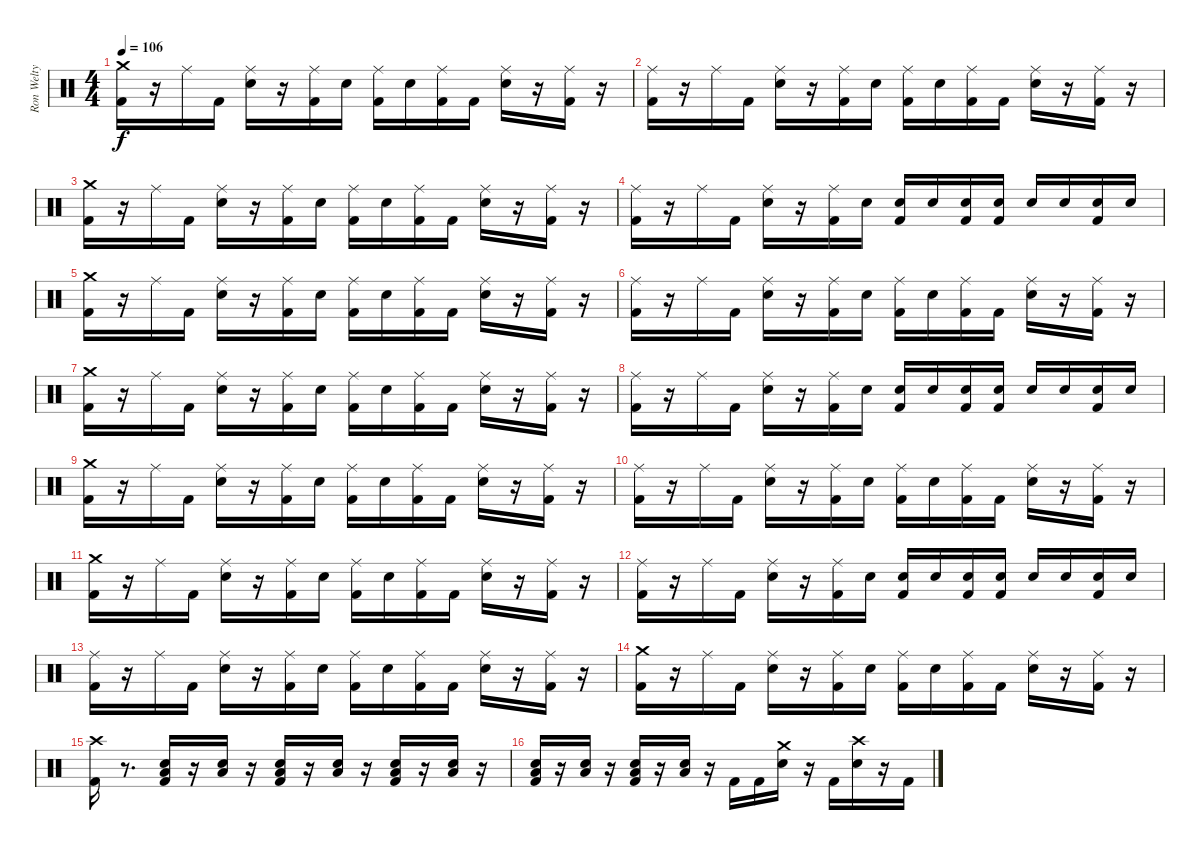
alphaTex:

\track ("Ron Welty - Drummer" "Ron Welty ") {instrument percussion}
\staff {score}
\articulation defaults
\ts (4 4)
\tempo 106
\clef neutral
\ks c
("Kick (hit) 2" "Crash medium (hit)").16{dy f} r.16 "Ride (middle)".16 "Kick (hit) 2".16 ("Electric Snare (hit)" "Ride (middle)").16 r.16 ("Kick (hit) 2" "Ride (middle)").16 "Electric Snare (hit)".16 ("Kick (hit) 2" "Ride (middle)").16 "Electric Snare (hit)".16 ("Kick (hit) 2" "Ride (middle)").16 "Kick (hit) 2".16 ("Electric Snare (hit)" "Ride (middle)").16 r.16 ("Kick (hit) 2" "Ride (middle)").16 r.16 |
("Kick (hit) 2" "Ride (middle)").16 r.16 "Ride (middle)".16 "Kick (hit) 2".16 ("Electric Snare (hit)" "Ride (middle)").16 r.16 ("Kick (hit) 2" "Ride (middle)").16 "Electric Snare (hit)".16 ("Kick (hit) 2" "Ride (middle)").16 "Electric Snare (hit)".16 ("Kick (hit) 2" "Ride (middle)").16 "Kick (hit) 2".16 ("Electric Snare (hit)" "Ride (middle)").16 r.16 ("Kick (hit) 2" "Ride (middle)").16 r.16 |
("Kick (hit) 2" "Crash medium (hit)").16 r.16 "Ride (middle)".16 "Kick (hit) 2".16 ("Electric Snare (hit)" "Ride (middle)").16 r.16 ("Kick (hit) 2" "Ride (middle)").16 "Electric Snare (hit)".16 ("Kick (hit) 2" "Ride (middle)").16 "Electric Snare (hit)".16 ("Kick (hit) 2" "Ride (middle)").16 "Kick (hit) 2".16 ("Electric Snare (hit)" "Ride (middle)").16 r.16 ("Kick (hit) 2" "Ride (middle)").16 r.16 |
("Kick (hit) 2" "Ride (middle)").16 r.16 "Ride (middle)".16 "Kick (hit) 2".16 ("Electric Snare (hit)" "Ride (middle)").16 r.16 ("Kick (hit) 2" "Ride (middle)").16 "Electric Snare (hit)".16 ("Kick (hit) 2" "Electric Snare (hit)").16 "Electric Snare (hit)".16 ("Kick (hit) 2" "Electric Snare (hit)").16 ("Kick (hit) 2" "Electric Snare (hit)").16 "Electric Snare (hit)".16 "Electric Snare (hit)".16 ("Kick (hit) 2" "Electric Snare (hit)").16 "Electric Snare (hit)".16 |
("Crash medium (hit)" "Kick (hit) 2").16 r.16 "Ride (middle)".16 "Kick (hit) 2".16 ("Electric Snare (hit)" "Ride (middle)").16 r.16 ("Kick (hit) 2" "Ride (middle)").16 "Electric Snare (hit)".16 ("Kick (hit) 2" "Ride (middle)").16 "Electric Snare (hit)".16 ("Kick (hit) 2" "Ride (middle)").16 "Kick (hit) 2".16 ("Electric Snare (hit)" "Ride (middle)").16 r.16 ("Kick (hit) 2" "Ride (middle)").16 r.16 |
("Kick (hit) 2" "Ride (middle)").16 r.16 "Ride (middle)".16 "Kick (hit) 2".16 ("Electric Snare (hit)" "Ride (middle)").16 r.16 ("Kick (hit) 2" "Ride (middle)").16 "Electric Snare (hit)".16 ("Kick (hit) 2" "Ride (middle)").16 "Electric Snare (hit)".16 ("Kick (hit) 2" "Ride (middle)").16 "Kick (hit) 2".16 ("Electric Snare (hit)" "Ride (middle)").16 r.16 ("Kick (hit) 2" "Ride (middle)").16 r.16 |
("Kick (hit) 2" "Crash medium (hit)").16 r.16 "Ride (middle)".16 "Kick (hit) 2".16 ("Electric Snare (hit)" "Ride (middle)").16 r.16 ("Kick (hit) 2" "Ride (middle)").16 "Electric Snare (hit)".16 ("Kick (hit) 2" "Ride (middle)").16 "Electric Snare (hit)".16 ("Kick (hit) 2" "Ride (middle)").16 "Kick (hit) 2".16 ("Electric Snare (hit)" "Ride (middle)").16 r.16 ("Kick (hit) 2" "Ride (middle)").16 r.16 |
("Kick (hit) 2" "Ride (middle)").16 r.16 "Ride (middle)".16 "Kick (hit) 2".16 ("Electric Snare (hit)" "Ride (middle)").16 r.16 ("Kick (hit) 2" "Ride (middle)").16 "Electric Snare (hit)".16 ("Kick (hit) 2" "Electric Snare (hit)").16 "Electric Snare (hit)".16 ("Kick (hit) 2" "Electric Snare (hit)").16 ("Kick (hit) 2" "Electric Snare (hit)").16 "Electric Snare (hit)".16 "Electric Snare (hit)".16 ("Kick (hit) 2" "Electric Snare (hit)").16 "Electric Snare (hit)".16 |
("Crash medium (hit)" "Kick (hit) 2").16 r.16 "Ride (middle)".16 "Kick (hit) 2".16 ("Electric Snare (hit)" "Ride (middle)").16 r.16 ("Kick (hit) 2" "Ride (middle)").16 "Electric Snare (hit)".16 ("Kick (hit) 2" "Ride (middle)").16 "Electric Snare (hit)".16 ("Kick (hit) 2" "Ride (middle)").16 "Kick (hit) 2".16 ("Electric Snare (hit)" "Ride (middle)").16 r.16 ("Kick (hit) 2" "Ride (middle)").16 r.16 |
("Kick (hit) 2" "Ride (middle)").16 r.16 "Ride (middle)".16 "Kick (hit) 2".16 ("Electric Snare (hit)" "Ride (middle)").16 r.16 ("Kick (hit) 2" "Ride (middle)").16 "Electric Snare (hit)".16 ("Kick (hit) 2" "Ride (middle)").16 "Electric Snare (hit)".16 ("Kick (hit) 2" "Ride (middle)").16 "Kick (hit) 2".16 ("Electric Snare (hit)" "Ride (middle)").16 r.16 ("Kick (hit) 2" "Ride (middle)").16 r.16 |
("Kick (hit) 2" "Crash medium (hit)").16 r.16 "Ride (middle)".16 "Kick (hit) 2".16 ("Electric Snare (hit)" "Ride (middle)").16 r.16 ("Kick (hit) 2" "Ride (middle)").16 "Electric Snare (hit)".16 ("Kick (hit) 2" "Ride (middle)").16 "Electric Snare (hit)".16 ("Kick (hit) 2" "Ride (middle)").16 "Kick (hit) 2".16 ("Electric Snare (hit)" "Ride (middle)").16 r.16 ("Kick (hit) 2" "Ride (middle)").16 r.16 |
("Kick (hit) 2" "Ride (middle)").16 r.16 "Ride (middle)".16 "Kick (hit) 2".16 ("Electric Snare (hit)" "Ride (middle)").16 r.16 ("Kick (hit) 2" "Ride (middle)").16 "Electric Snare (hit)".16 ("Kick (hit) 2" "Electric Snare (hit)").16 "Electric Snare (hit)".16 ("Kick (hit) 2" "Electric Snare (hit)").16 ("Kick (hit) 2" "Electric Snare (hit)").16 "Electric Snare (hit)".16 "Electric Snare (hit)".16 ("Kick (hit) 2" "Electric Snare (hit)").16 "Electric Snare (hit)".16 |
("Kick (hit) 2" "Ride (middle)").16 r.16 "Ride (middle)".16 "Kick (hit) 2".16 ("Electric Snare (hit)" "Ride (middle)").16 r.16 ("Kick (hit) 2" "Ride (middle)").16 "Electric Snare (hit)".16 ("Kick (hit) 2" "Ride (middle)").16 "Electric Snare (hit)".16 ("Kick (hit) 2" "Ride (middle)").16 "Kick (hit) 2".16 ("Electric Snare (hit)" "Ride (middle)").16 r.16 ("Kick (hit) 2" "Ride (middle)").16 r.16 |
("Kick (hit) 2" "Crash medium (hit)").16 r.16 "Ride (middle)".16 "Kick (hit) 2".16 ("Electric Snare (hit)" "Ride (middle)").16 r.16 ("Kick (hit) 2" "Ride (middle)").16 "Electric Snare (hit)".16 ("Kick (hit) 2" "Ride (middle)").16 "Electric Snare (hit)".16 ("Kick (hit) 2" "Ride (middle)").16 "Kick (hit) 2".16 ("Electric Snare (hit)" "Ride (middle)").16 r.16 ("Kick (hit) 2" "Ride (middle)").16 r.16 |
("Kick (hit) 2" "Crash high (hit)").16 r.8{d} ("Low Floor Tom (hit)" "Kick (hit) 2" "Electric Snare (hit)").16 r.16 ("Low Floor Tom (hit)" "Electric Snare (hit)").16 r.16 ("Kick (hit) 2" "Low Floor Tom (hit)" "Electric Snare (hit)").16 r.16 ("Low Floor Tom (hit)" "Electric Snare (hit)").16 r.16 ("Kick (hit) 2" "Low Floor Tom (hit)" "Electric Snare (hit)").16 r.16 ("Low Floor Tom (hit)" "Electric Snare (hit)").16 r.16 |
("Kick (hit) 2" "Low Floor Tom (hit)" "Electric Snare (hit)").16 r.16 ("Low Floor Tom (hit)" "Electric Snare (hit)").16 r.16 ("Kick (hit) 2" "Low Floor Tom (hit)" "Electric Snare (hit)").16 r.16 ("Low Floor Tom (hit)" "Electric Snare (hit)").16 r.16 "Kick (hit) 2".16 "Kick (hit) 2".16 ("Electric Snare (hit)" "Crash medium (hit)").16 r.16 "Kick (hit) 2".16 ("Electric Snare (hit)" "Crash high (hit)").16 r.16 "Kick (hit) 2".16
